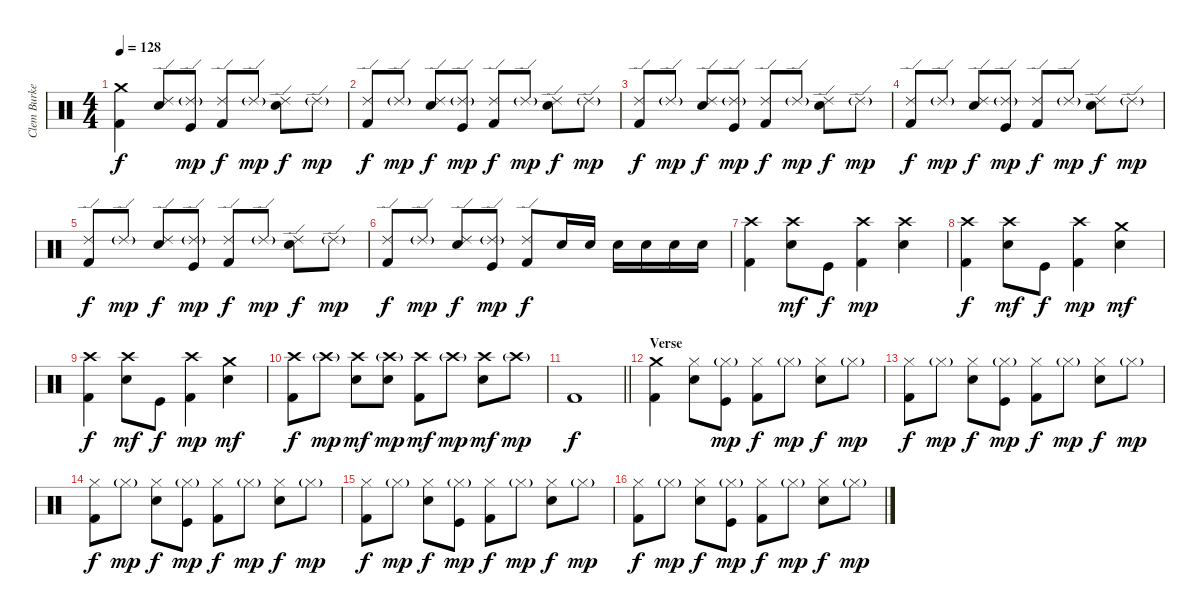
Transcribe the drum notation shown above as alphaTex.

\track ("Clem Burke" "Clem Burke") {instrument percussion}
\staff {score}
\articulation defaults
\ts (4 4)
\tempo 128
\clef neutral
\ks c
("Crash medium (hit)" "Kick (hit) 2").4{dy f} ("Ride (edge) 2" "Electric Snare (hit)").8 ("Ride (edge) 2"{g} "Kick (hit)").8{dy mp} ("Ride (edge) 2" "Kick (hit) 2").8{dy f} "Ride (edge) 2"{g}.8{dy mp} ("Ride (edge) 2" "Electric Snare (hit)").8{dy f} "Ride (edge) 2"{g}.8{dy mp} |
("Ride (edge) 2" "Kick (hit) 2").8{dy f} "Ride (edge) 2"{g}.8{dy mp} ("Ride (edge) 2" "Electric Snare (hit)").8{dy f} ("Ride (edge) 2"{g} "Kick (hit)").8{dy mp} ("Ride (edge) 2" "Kick (hit) 2").8{dy f} "Ride (edge) 2"{g}.8{dy mp} ("Ride (edge) 2" "Electric Snare (hit)").8{dy f} "Ride (edge) 2"{g}.8{dy mp} |
("Ride (edge) 2" "Kick (hit) 2").8{dy f} "Ride (edge) 2"{g}.8{dy mp} ("Ride (edge) 2" "Electric Snare (hit)").8{dy f} ("Ride (edge) 2"{g} "Kick (hit)").8{dy mp} ("Ride (edge) 2" "Kick (hit) 2").8{dy f} "Ride (edge) 2"{g}.8{dy mp} ("Ride (edge) 2" "Electric Snare (hit)").8{dy f} "Ride (edge) 2"{g}.8{dy mp} |
("Ride (edge) 2" "Kick (hit) 2").8{dy f} "Ride (edge) 2"{g}.8{dy mp} ("Ride (edge) 2" "Electric Snare (hit)").8{dy f} ("Ride (edge) 2"{g} "Kick (hit)").8{dy mp} ("Ride (edge) 2" "Kick (hit) 2").8{dy f} "Ride (edge) 2"{g}.8{dy mp} ("Ride (edge) 2" "Electric Snare (hit)").8{dy f} "Ride (edge) 2"{g}.8{dy mp} |
("Ride (edge) 2" "Kick (hit) 2").8{dy f} "Ride (edge) 2"{g}.8{dy mp} ("Ride (edge) 2" "Electric Snare (hit)").8{dy f} ("Ride (edge) 2"{g} "Kick (hit)").8{dy mp} ("Ride (edge) 2" "Kick (hit) 2").8{dy f} "Ride (edge) 2"{g}.8{dy mp} ("Ride (edge) 2" "Electric Snare (hit)").8{dy f} "Ride (edge) 2"{g}.8{dy mp} |
("Ride (edge) 2" "Kick (hit) 2").8{dy f} "Ride (edge) 2"{g}.8{dy mp} ("Ride (edge) 2" "Electric Snare (hit)").8{dy f} ("Ride (edge) 2"{g} "Kick (hit)").8{dy mp} ("Ride (edge) 2" "Kick (hit) 2").8{dy f} "Electric Snare (hit)".16 "Electric Snare (hit)".16 "Electric Snare (hit)".16 "Electric Snare (hit)".16 "Electric Snare (hit)".16 "Electric Snare (hit)".16 |
("Crash high (hit)" "Kick (hit) 2").4 ("Crash high (hit)" "Electric Snare (hit)").8{dy mf} "Kick (hit)".8{dy f} ("Crash high (hit)" "Kick (hit) 2").4{dy mp} ("Crash high (hit)" "Electric Snare (hit)").4 |
("Crash high (hit)" "Kick (hit) 2").4{dy f} ("Crash high (hit)" "Electric Snare (hit)").8{dy mf} "Kick (hit)".8{dy f} ("Crash high (hit)" "Kick (hit) 2").4{dy mp} ("Crash medium (hit)" "Electric Snare (hit)").4{dy mf} |
("Crash high (hit)" "Kick (hit) 2").4{dy f} ("Crash high (hit)" "Electric Snare (hit)").8{dy mf} "Kick (hit)".8{dy f} ("Crash high (hit)" "Kick (hit) 2").4{dy mp} ("Crash medium (hit)" "Electric Snare (hit)").4{dy mf} |
("Crash high (hit)" "Kick (hit) 2").8{dy f} "Crash high (hit)"{g}.8{dy mp} ("Crash high (hit)" "Electric Snare (hit)").8{dy mf} ("Crash high (hit)"{g} "Electric Snare (hit)").8{dy mp} ("Crash high (hit)" "Kick (hit) 2").8{dy mf} "Crash high (hit)"{g}.8{dy mp} ("Crash high (hit)" "Electric Snare (hit)").8{dy mf} "Crash high (hit)"{g}.8{dy mp} |
\barLineRight lightlight "Kick (hit) 2".1{dy f}
|
\section ("" "Verse")
("Crash medium (hit)" "Kick (hit) 2").4 ("Hi-Hat (closed)" "Electric Snare (hit)").8 ("Hi-Hat (closed)"{g} "Kick (hit)").8{dy mp} ("Hi-Hat (closed)" "Kick (hit) 2").8{dy f} "Hi-Hat (closed)"{g}.8{dy mp} ("Hi-Hat (closed)" "Electric Snare (hit)").8{dy f} "Hi-Hat (closed)"{g}.8{dy mp} |
("Hi-Hat (closed)" "Kick (hit) 2").8{dy f} "Hi-Hat (closed)"{g}.8{dy mp} ("Hi-Hat (closed)" "Electric Snare (hit)").8{dy f} ("Hi-Hat (closed)"{g} "Kick (hit)").8{dy mp} ("Hi-Hat (closed)" "Kick (hit) 2").8{dy f} "Hi-Hat (closed)"{g}.8{dy mp} ("Hi-Hat (closed)" "Electric Snare (hit)").8{dy f} "Hi-Hat (closed)"{g}.8{dy mp} |
("Hi-Hat (closed)" "Kick (hit) 2").8{dy f} "Hi-Hat (closed)"{g}.8{dy mp} ("Hi-Hat (closed)" "Electric Snare (hit)").8{dy f} ("Hi-Hat (closed)"{g} "Kick (hit)").8{dy mp} ("Hi-Hat (closed)" "Kick (hit) 2").8{dy f} "Hi-Hat (closed)"{g}.8{dy mp} ("Hi-Hat (closed)" "Electric Snare (hit)").8{dy f} "Hi-Hat (closed)"{g}.8{dy mp} |
("Hi-Hat (closed)" "Kick (hit) 2").8{dy f} "Hi-Hat (closed)"{g}.8{dy mp} ("Hi-Hat (closed)" "Electric Snare (hit)").8{dy f} ("Hi-Hat (closed)"{g} "Kick (hit)").8{dy mp} ("Hi-Hat (closed)" "Kick (hit) 2").8{dy f} "Hi-Hat (closed)"{g}.8{dy mp} ("Hi-Hat (closed)" "Electric Snare (hit)").8{dy f} "Hi-Hat (closed)"{g}.8{dy mp} |
("Hi-Hat (closed)" "Kick (hit) 2").8{dy f} "Hi-Hat (closed)"{g}.8{dy mp} ("Hi-Hat (closed)" "Electric Snare (hit)").8{dy f} ("Hi-Hat (closed)"{g} "Kick (hit)").8{dy mp} ("Hi-Hat (closed)" "Kick (hit) 2").8{dy f} "Hi-Hat (closed)"{g}.8{dy mp} ("Hi-Hat (closed)" "Electric Snare (hit)").8{dy f} "Hi-Hat (closed)"{g}.8{dy mp}
